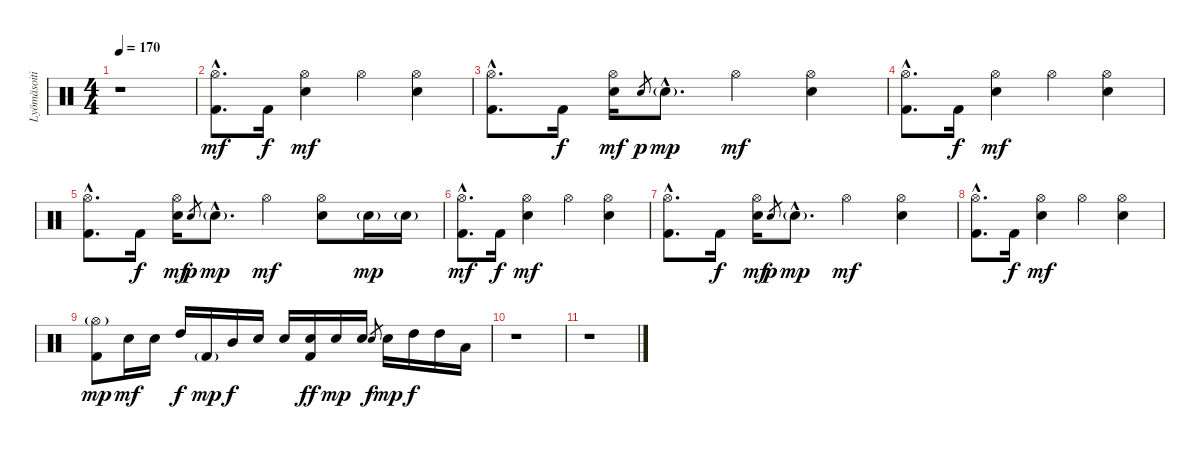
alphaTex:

\track ("Lyömäsoitin" "Lyömäsoiti") {instrument percussion}
\staff {score}
\articulation defaults
\ts (4 4)
\tempo 170
\clef neutral
\ks c
r.1{dy mp} |
("Hi-Hat (open)"{hac} "Kick (hit) 2"{hac}).8{d dy mf} "Kick (hit) 2".16{dy f} ("Hi-Hat (open)" "Electric Snare (hit)").4{dy mf} "Hi-Hat (open)".4 ("Hi-Hat (open)" "Electric Snare (hit)").4 |
("Hi-Hat (open)"{hac} "Kick (hit) 2"{hac}).8{d} "Kick (hit) 2".16{dy f} ("Hi-Hat (open)" "Electric Snare (hit)").16{dy mf} "Electric Snare (hit)".8{gr dy p} "Electric Snare (hit)"{g hac}.8{d dy mp} "Hi-Hat (open)".4{dy mf} ("Hi-Hat (open)" "Electric Snare (hit)").4 |
("Hi-Hat (open)"{hac} "Kick (hit) 2"{hac}).8{d} "Kick (hit) 2".16{dy f} ("Hi-Hat (open)" "Electric Snare (hit)").4{dy mf} "Hi-Hat (open)".4 ("Hi-Hat (open)" "Electric Snare (hit)").4 |
("Hi-Hat (open)"{hac} "Kick (hit) 2"{hac}).8{d} "Kick (hit) 2".16{dy f} ("Hi-Hat (open)" "Electric Snare (hit)").16{dy mf} "Electric Snare (hit)".8{gr dy p} "Electric Snare (hit)"{g hac}.8{d dy mp} "Hi-Hat (open)".4{dy mf} ("Hi-Hat (open)" "Electric Snare (hit)").8 "Electric Snare (hit)"{g}.16{dy mp} "Electric Snare (hit)"{g}.16 |
("Hi-Hat (open)"{hac} "Kick (hit) 2"{hac}).8{d dy mf} "Kick (hit) 2".16{dy f} ("Hi-Hat (open)" "Electric Snare (hit)").4{dy mf} "Hi-Hat (open)".4 ("Hi-Hat (open)" "Electric Snare (hit)").4 |
("Hi-Hat (open)"{hac} "Kick (hit) 2"{hac}).8{d} "Kick (hit) 2".16{dy f} ("Hi-Hat (open)" "Electric Snare (hit)").16{dy mf} "Electric Snare (hit)".8{gr dy p} "Electric Snare (hit)"{g hac}.8{d dy mp} "Hi-Hat (open)".4{dy mf} ("Hi-Hat (open)" "Electric Snare (hit)").4 |
("Hi-Hat (open)"{hac} "Kick (hit) 2"{hac}).8{d} "Kick (hit) 2".16{dy f} ("Hi-Hat (open)" "Electric Snare (hit)").4{dy mf} "Hi-Hat (open)".4 ("Hi-Hat (open)" "Electric Snare (hit)").4 |
("Kick (hit) 2" "Hi-Hat (open)"{g}).8{dy mp} "Electric Snare (hit)".16{dy mf} "Electric Snare (hit)".16 "High Tom (hit)".16{dy f} "Kick (hit) 2"{g}.16{dy mp} "Mid Tom (hit)".16{dy f} "Electric Snare (hit)".16 "Electric Snare (hit)".16 ("Kick (hit) 2" "Electric Snare (hit)").16{dy ff} "Electric Snare (hit)".16{dy mp} "Electric Snare (hit)".16 "Electric Snare (hit)".8{gr dy f} "Electric Snare (hit)".16{dy mp} "High Tom (hit)".16{dy f} "High Tom (hit)".16 "Low Floor Tom (hit)".16 |
r.1 |
r.1
